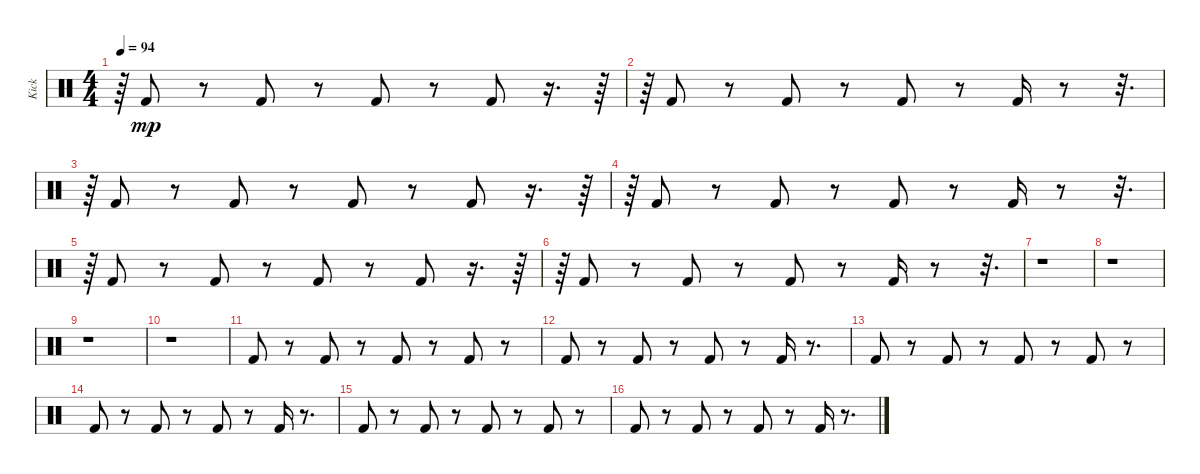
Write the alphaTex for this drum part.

\track ("Kick" "Kick") {instrument percussion}
\staff {score}
\articulation defaults
\ts (4 4)
\tempo 94
\clef neutral
\ks c
r.64{dy mp} "Kick (hit) 2".8 r.8 "Kick (hit) 2".8 r.8 "Kick (hit) 2".8 r.8 "Kick (hit) 2".8 r.16{d} r.64 |
r.64 "Kick (hit) 2".8 r.8 "Kick (hit) 2".8 r.8 "Kick (hit) 2".8 r.8 "Kick (hit) 2".16 r.8 r.32{d} |
r.64 "Kick (hit) 2".8 r.8 "Kick (hit) 2".8 r.8 "Kick (hit) 2".8 r.8 "Kick (hit) 2".8 r.16{d} r.64 |
r.64 "Kick (hit) 2".8 r.8 "Kick (hit) 2".8 r.8 "Kick (hit) 2".8 r.8 "Kick (hit) 2".16 r.8 r.32{d} |
r.64 "Kick (hit) 2".8 r.8 "Kick (hit) 2".8 r.8 "Kick (hit) 2".8 r.8 "Kick (hit) 2".8 r.16{d} r.64 |
r.64 "Kick (hit) 2".8 r.8 "Kick (hit) 2".8 r.8 "Kick (hit) 2".8 r.8 "Kick (hit) 2".16 r.8 r.32{d} |
r.1 |
r.1 |
r.1 |
r.1 |
"Kick (hit) 2".8 r.8 "Kick (hit) 2".8 r.8 "Kick (hit) 2".8 r.8 "Kick (hit) 2".8 r.8 |
"Kick (hit) 2".8 r.8 "Kick (hit) 2".8 r.8 "Kick (hit) 2".8 r.8 "Kick (hit) 2".16 r.8{d} |
"Kick (hit) 2".8 r.8 "Kick (hit) 2".8 r.8 "Kick (hit) 2".8 r.8 "Kick (hit) 2".8 r.8 |
"Kick (hit) 2".8 r.8 "Kick (hit) 2".8 r.8 "Kick (hit) 2".8 r.8 "Kick (hit) 2".16 r.8{d} |
"Kick (hit) 2".8 r.8 "Kick (hit) 2".8 r.8 "Kick (hit) 2".8 r.8 "Kick (hit) 2".8 r.8 |
"Kick (hit) 2".8 r.8 "Kick (hit) 2".8 r.8 "Kick (hit) 2".8 r.8 "Kick (hit) 2".16 r.8{d}
